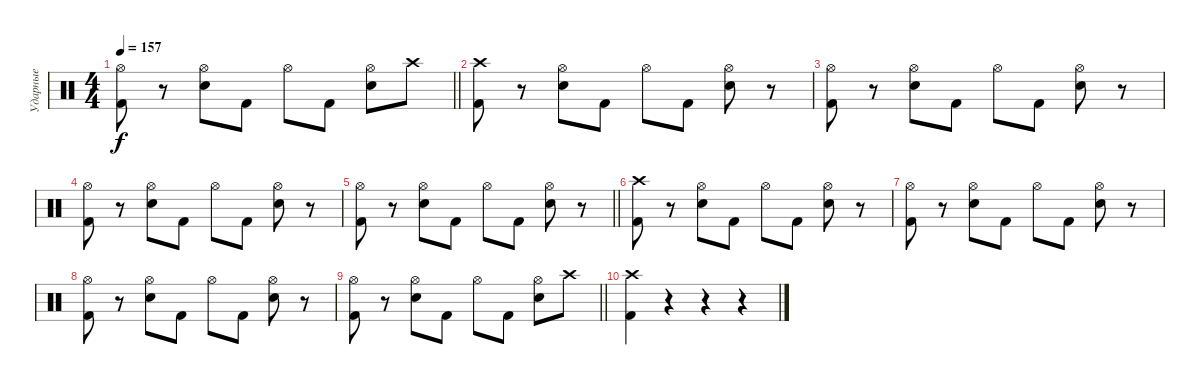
\track ("Ударные" "Ударные") {instrument percussion}
\staff {score}
\articulation defaults
\ts (4 4)
\tempo 157
\clef neutral
\barLineRight lightlight
\ks c
("Hi-Hat (open)" "Kick (hit) 2").8{dy f} r.8 ("Hi-Hat (open)" "Snare (hit) 2").8 "Kick (hit) 2".8 "Hi-Hat (open)".8 "Kick (hit) 2".8 ("Hi-Hat (open)" "Snare (hit) 2").8 "Crash high (hit)".8 |
("Crash high (hit)" "Kick (hit) 2").8 r.8 ("Hi-Hat (open)" "Snare (hit) 2").8 "Kick (hit) 2".8 "Hi-Hat (open)".8 "Kick (hit) 2".8 ("Hi-Hat (open)" "Snare (hit) 2").8 r.8 |
("Hi-Hat (open)" "Kick (hit) 2").8 r.8 ("Hi-Hat (open)" "Snare (hit) 2").8 "Kick (hit) 2".8 "Hi-Hat (open)".8 "Kick (hit) 2".8 ("Hi-Hat (open)" "Snare (hit) 2").8 r.8 |
("Hi-Hat (open)" "Kick (hit) 2").8 r.8 ("Hi-Hat (open)" "Snare (hit) 2").8 "Kick (hit) 2".8 "Hi-Hat (open)".8 "Kick (hit) 2".8 ("Hi-Hat (open)" "Snare (hit) 2").8 r.8 |
\barLineRight lightlight
("Hi-Hat (open)" "Kick (hit) 2").8 r.8 ("Hi-Hat (open)" "Snare (hit) 2").8 "Kick (hit) 2".8 "Hi-Hat (open)".8 "Kick (hit) 2".8 ("Hi-Hat (open)" "Snare (hit) 2").8 r.8 |
("Crash high (hit)" "Kick (hit) 2").8 r.8 ("Hi-Hat (open)" "Snare (hit) 2").8 "Kick (hit) 2".8 "Hi-Hat (open)".8 "Kick (hit) 2".8 ("Hi-Hat (open)" "Snare (hit) 2").8 r.8 |
("Hi-Hat (open)" "Kick (hit) 2").8 r.8 ("Hi-Hat (open)" "Snare (hit) 2").8 "Kick (hit) 2".8 "Hi-Hat (open)".8 "Kick (hit) 2".8 ("Hi-Hat (open)" "Snare (hit) 2").8 r.8 |
("Hi-Hat (open)" "Kick (hit) 2").8 r.8 ("Hi-Hat (open)" "Snare (hit) 2").8 "Kick (hit) 2".8 "Hi-Hat (open)".8 "Kick (hit) 2".8 ("Hi-Hat (open)" "Snare (hit) 2").8 r.8 |
\barLineRight lightlight
("Hi-Hat (open)" "Kick (hit) 2").8 r.8 ("Hi-Hat (open)" "Snare (hit) 2").8 "Kick (hit) 2".8 "Hi-Hat (open)".8 "Kick (hit) 2".8 ("Hi-Hat (open)" "Snare (hit) 2").8 "Crash high (hit)".8 |
("Crash high (hit)" "Kick (hit) 2").4 r.4 r.4 r.4
